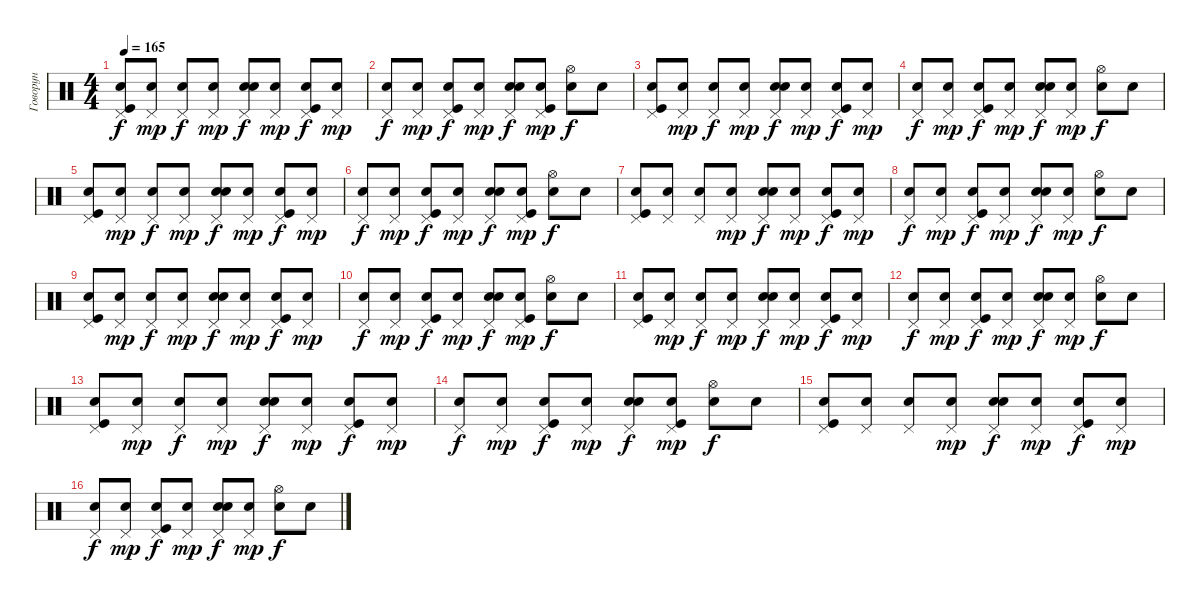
\track ("Говорун" "Говорун") {instrument percussion}
\staff {score}
\articulation defaults
\ts (4 4)
\tempo 165
\clef neutral
\ks c
("Pedal Hi-Hat (hit)" "Kick (hit)" "Snare (hit)"{x}).8{dy f} ("Pedal Hi-Hat (hit)" "Snare (hit)"{x}).8{dy mp} ("Pedal Hi-Hat (hit)" "Snare (hit)"{x}).8{dy f} ("Pedal Hi-Hat (hit)" "Snare (hit)"{x}).8{dy mp} ("Pedal Hi-Hat (hit)" "Snare (hit) 2" "Snare (hit)"{x}).8{dy f} ("Pedal Hi-Hat (hit)" "Snare (hit)"{x}).8{dy mp} ("Pedal Hi-Hat (hit)" "Kick (hit)" "Snare (hit)"{x}).8{dy f} ("Pedal Hi-Hat (hit)" "Snare (hit)"{x}).8{dy mp} |
("Pedal Hi-Hat (hit)" "Snare (hit)"{x}).8{dy f} ("Pedal Hi-Hat (hit)" "Snare (hit)"{x}).8{dy mp} ("Pedal Hi-Hat (hit)" "Kick (hit)" "Snare (hit)"{x}).8{dy f} ("Pedal Hi-Hat (hit)" "Snare (hit)"{x}).8{dy mp} ("Pedal Hi-Hat (hit)" "Snare (hit) 2" "Snare (hit)"{x}).8{dy f} ("Pedal Hi-Hat (hit)" "Kick (hit)" "Snare (hit)"{x}).8{dy mp} ("Hi-Hat (open)" "Snare (hit)"{x}).8{dy f} "Snare (hit)"{x}.8 |
("Pedal Hi-Hat (hit)" "Kick (hit)" "Snare (hit)"{x}).8 ("Pedal Hi-Hat (hit)" "Snare (hit)"{x}).8{dy mp} ("Pedal Hi-Hat (hit)" "Snare (hit)"{x}).8{dy f} ("Pedal Hi-Hat (hit)" "Snare (hit)"{x}).8{dy mp} ("Pedal Hi-Hat (hit)" "Snare (hit) 2" "Snare (hit)"{x}).8{dy f} ("Pedal Hi-Hat (hit)" "Snare (hit)"{x}).8{dy mp} ("Pedal Hi-Hat (hit)" "Kick (hit)" "Snare (hit)"{x}).8{dy f} ("Pedal Hi-Hat (hit)" "Snare (hit)"{x}).8{dy mp} |
("Pedal Hi-Hat (hit)" "Snare (hit)"{x}).8{dy f} ("Pedal Hi-Hat (hit)" "Snare (hit)"{x}).8{dy mp} ("Pedal Hi-Hat (hit)" "Kick (hit)" "Snare (hit)"{x}).8{dy f} ("Pedal Hi-Hat (hit)" "Snare (hit)"{x}).8{dy mp} ("Pedal Hi-Hat (hit)" "Snare (hit) 2" "Snare (hit)"{x}).8{dy f} ("Pedal Hi-Hat (hit)" "Snare (hit)"{x}).8{dy mp} ("Hi-Hat (open)" "Snare (hit)"{x}).8{dy f} "Snare (hit)"{x}.8 |
("Pedal Hi-Hat (hit)" "Kick (hit)" "Snare (hit)"{x}).8 ("Pedal Hi-Hat (hit)" "Snare (hit)"{x}).8{dy mp} ("Pedal Hi-Hat (hit)" "Snare (hit)"{x}).8{dy f} ("Pedal Hi-Hat (hit)" "Snare (hit)"{x}).8{dy mp} ("Pedal Hi-Hat (hit)" "Snare (hit) 2" "Snare (hit)"{x}).8{dy f} ("Pedal Hi-Hat (hit)" "Snare (hit)"{x}).8{dy mp} ("Pedal Hi-Hat (hit)" "Kick (hit)" "Snare (hit)"{x}).8{dy f} ("Pedal Hi-Hat (hit)" "Snare (hit)"{x}).8{dy mp} |
("Pedal Hi-Hat (hit)" "Snare (hit)"{x}).8{dy f} ("Pedal Hi-Hat (hit)" "Snare (hit)"{x}).8{dy mp} ("Pedal Hi-Hat (hit)" "Kick (hit)" "Snare (hit)"{x}).8{dy f} ("Pedal Hi-Hat (hit)" "Snare (hit)"{x}).8{dy mp} ("Pedal Hi-Hat (hit)" "Snare (hit) 2" "Snare (hit)"{x}).8{dy f} ("Pedal Hi-Hat (hit)" "Kick (hit)" "Snare (hit)"{x}).8{dy mp} ("Hi-Hat (open)" "Snare (hit)"{x}).8{dy f} "Snare (hit)"{x}.8 |
("Pedal Hi-Hat (hit)" "Kick (hit)" "Snare (hit)"{x}).8 ("Pedal Hi-Hat (hit)" "Snare (hit)"{x}).8 ("Pedal Hi-Hat (hit)" "Snare (hit)"{x}).8 ("Pedal Hi-Hat (hit)" "Snare (hit)"{x}).8{dy mp} ("Pedal Hi-Hat (hit)" "Snare (hit) 2" "Snare (hit)"{x}).8{dy f} ("Pedal Hi-Hat (hit)" "Snare (hit)"{x}).8{dy mp} ("Pedal Hi-Hat (hit)" "Kick (hit)" "Snare (hit)"{x}).8{dy f} ("Pedal Hi-Hat (hit)" "Snare (hit)"{x}).8{dy mp} |
("Pedal Hi-Hat (hit)" "Snare (hit)"{x}).8{dy f} ("Pedal Hi-Hat (hit)" "Snare (hit)"{x}).8{dy mp} ("Pedal Hi-Hat (hit)" "Kick (hit)" "Snare (hit)"{x}).8{dy f} ("Pedal Hi-Hat (hit)" "Snare (hit)"{x}).8{dy mp} ("Pedal Hi-Hat (hit)" "Snare (hit) 2" "Snare (hit)"{x}).8{dy f} ("Pedal Hi-Hat (hit)" "Snare (hit)"{x}).8{dy mp} ("Hi-Hat (open)" "Snare (hit)"{x}).8{dy f} "Snare (hit)"{x}.8 |
("Pedal Hi-Hat (hit)" "Kick (hit)" "Snare (hit)"{x}).8 ("Pedal Hi-Hat (hit)" "Snare (hit)"{x}).8{dy mp} ("Pedal Hi-Hat (hit)" "Snare (hit)"{x}).8{dy f} ("Pedal Hi-Hat (hit)" "Snare (hit)"{x}).8{dy mp} ("Pedal Hi-Hat (hit)" "Snare (hit) 2" "Snare (hit)"{x}).8{dy f} ("Pedal Hi-Hat (hit)" "Snare (hit)"{x}).8{dy mp} ("Pedal Hi-Hat (hit)" "Kick (hit)" "Snare (hit)"{x}).8{dy f} ("Pedal Hi-Hat (hit)" "Snare (hit)"{x}).8{dy mp} |
("Pedal Hi-Hat (hit)" "Snare (hit)"{x}).8{dy f} ("Pedal Hi-Hat (hit)" "Snare (hit)"{x}).8{dy mp} ("Pedal Hi-Hat (hit)" "Kick (hit)" "Snare (hit)"{x}).8{dy f} ("Pedal Hi-Hat (hit)" "Snare (hit)"{x}).8{dy mp} ("Pedal Hi-Hat (hit)" "Snare (hit) 2" "Snare (hit)"{x}).8{dy f} ("Pedal Hi-Hat (hit)" "Kick (hit)" "Snare (hit)"{x}).8{dy mp} ("Hi-Hat (open)" "Snare (hit)"{x}).8{dy f} "Snare (hit)"{x}.8 |
("Pedal Hi-Hat (hit)" "Kick (hit)" "Snare (hit)"{x}).8 ("Pedal Hi-Hat (hit)" "Snare (hit)"{x}).8{dy mp} ("Pedal Hi-Hat (hit)" "Snare (hit)"{x}).8{dy f} ("Pedal Hi-Hat (hit)" "Snare (hit)"{x}).8{dy mp} ("Pedal Hi-Hat (hit)" "Snare (hit) 2" "Snare (hit)"{x}).8{dy f} ("Pedal Hi-Hat (hit)" "Snare (hit)"{x}).8{dy mp} ("Pedal Hi-Hat (hit)" "Kick (hit)" "Snare (hit)"{x}).8{dy f} ("Pedal Hi-Hat (hit)" "Snare (hit)"{x}).8{dy mp} |
("Pedal Hi-Hat (hit)" "Snare (hit)"{x}).8{dy f} ("Pedal Hi-Hat (hit)" "Snare (hit)"{x}).8{dy mp} ("Pedal Hi-Hat (hit)" "Kick (hit)" "Snare (hit)"{x}).8{dy f} ("Pedal Hi-Hat (hit)" "Snare (hit)"{x}).8{dy mp} ("Pedal Hi-Hat (hit)" "Snare (hit) 2" "Snare (hit)"{x}).8{dy f} ("Pedal Hi-Hat (hit)" "Snare (hit)"{x}).8{dy mp} ("Hi-Hat (open)" "Snare (hit)"{x}).8{dy f} "Snare (hit)"{x}.8 |
("Pedal Hi-Hat (hit)" "Kick (hit)" "Snare (hit)"{x}).8 ("Pedal Hi-Hat (hit)" "Snare (hit)"{x}).8{dy mp} ("Pedal Hi-Hat (hit)" "Snare (hit)"{x}).8{dy f} ("Pedal Hi-Hat (hit)" "Snare (hit)"{x}).8{dy mp} ("Pedal Hi-Hat (hit)" "Snare (hit) 2" "Snare (hit)"{x}).8{dy f} ("Pedal Hi-Hat (hit)" "Snare (hit)"{x}).8{dy mp} ("Pedal Hi-Hat (hit)" "Kick (hit)" "Snare (hit)"{x}).8{dy f} ("Pedal Hi-Hat (hit)" "Snare (hit)"{x}).8{dy mp} |
("Pedal Hi-Hat (hit)" "Snare (hit)"{x}).8{dy f} ("Pedal Hi-Hat (hit)" "Snare (hit)"{x}).8{dy mp} ("Pedal Hi-Hat (hit)" "Kick (hit)" "Snare (hit)"{x}).8{dy f} ("Pedal Hi-Hat (hit)" "Snare (hit)"{x}).8{dy mp} ("Pedal Hi-Hat (hit)" "Snare (hit) 2" "Snare (hit)"{x}).8{dy f} ("Pedal Hi-Hat (hit)" "Kick (hit)" "Snare (hit)"{x}).8{dy mp} ("Hi-Hat (open)" "Snare (hit)"{x}).8{dy f} "Snare (hit)"{x}.8 |
("Pedal Hi-Hat (hit)" "Kick (hit)" "Snare (hit)"{x}).8 ("Pedal Hi-Hat (hit)" "Snare (hit)"{x}).8 ("Pedal Hi-Hat (hit)" "Snare (hit)"{x}).8 ("Pedal Hi-Hat (hit)" "Snare (hit)"{x}).8{dy mp} ("Pedal Hi-Hat (hit)" "Snare (hit) 2" "Snare (hit)"{x}).8{dy f} ("Pedal Hi-Hat (hit)" "Snare (hit)"{x}).8{dy mp} ("Pedal Hi-Hat (hit)" "Kick (hit)" "Snare (hit)"{x}).8{dy f} ("Pedal Hi-Hat (hit)" "Snare (hit)"{x}).8{dy mp} |
("Pedal Hi-Hat (hit)" "Snare (hit)"{x}).8{dy f} ("Pedal Hi-Hat (hit)" "Snare (hit)"{x}).8{dy mp} ("Pedal Hi-Hat (hit)" "Kick (hit)" "Snare (hit)"{x}).8{dy f} ("Pedal Hi-Hat (hit)" "Snare (hit)"{x}).8{dy mp} ("Pedal Hi-Hat (hit)" "Snare (hit) 2" "Snare (hit)"{x}).8{dy f} ("Pedal Hi-Hat (hit)" "Snare (hit)"{x}).8{dy mp} ("Hi-Hat (open)" "Snare (hit)"{x}).8{dy f} "Snare (hit)"{x}.8
